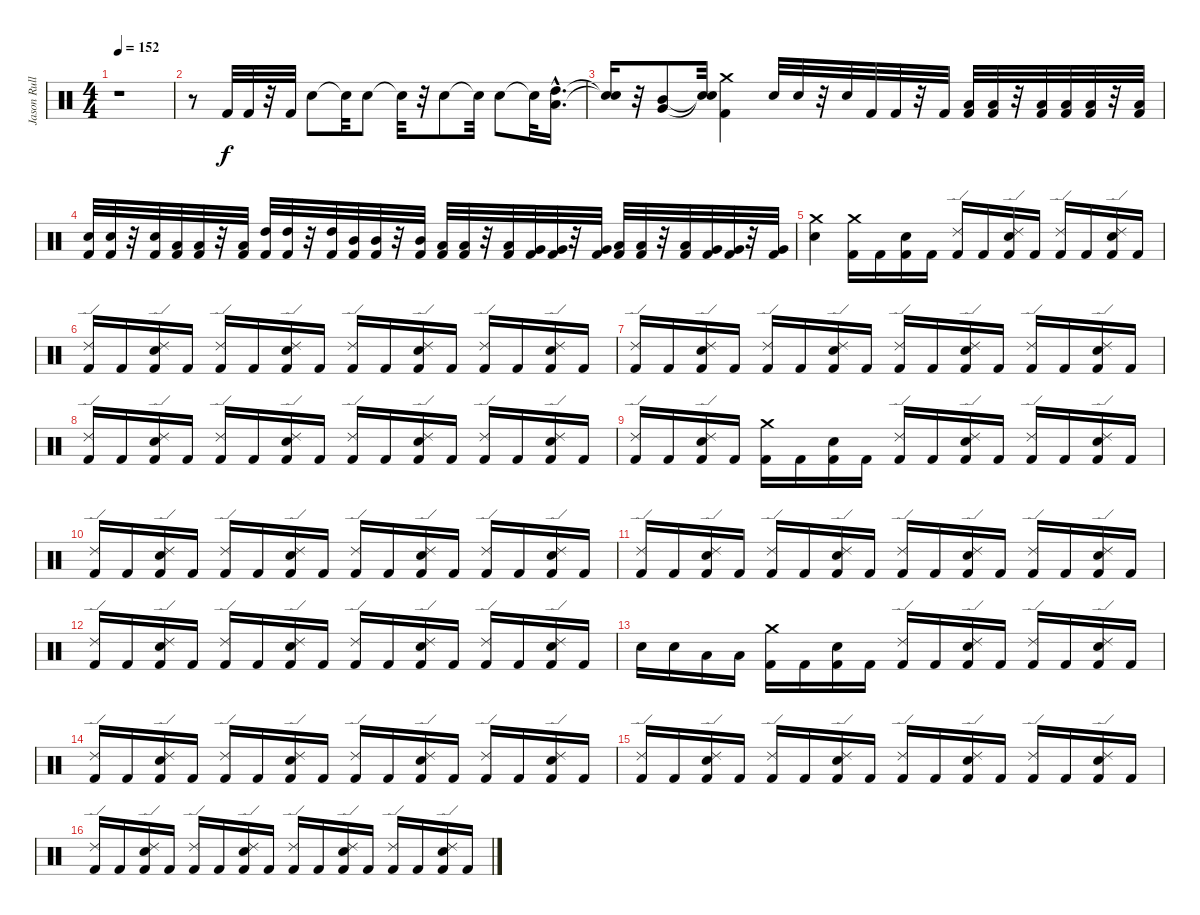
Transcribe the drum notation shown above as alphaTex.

\track ("Jason Rullo" "Jason Rull") {instrument percussion}
\staff {score}
\articulation defaults
\ts (4 4)
\tempo 152
\clef neutral
\ks c
r.1{dy f} |
r.8 "Kick (hit) 2".32 "Kick (hit) 2".32 r.32 "Kick (hit) 2".32 "Electric Snare (hit)".8 "Snare (hit)"{t}.32 "Electric Snare (hit)".8 "Snare (hit)"{t}.32 r.32 "Electric Snare (hit)".8 "Snare (hit)"{t}.32 "Electric Snare (hit)".8 "Snare (hit)"{t}.32 ("High Tom (hit)"{hac} "Low Tom (hit)"{hac}).16{d} |
("Snare (hit)"{t} "Snare (hit)"{t}).16 r.32 ("Mid Tom (hit)" "Very Low Tom (hit)").8 ("Snare (hit)"{t} "Snare (hit)"{t}).32 ("Crash medium (hit)" "Kick (hit) 2").4 "Electric Snare (hit)".32 "Electric Snare (hit)".32 r.32 "Electric Snare (hit)".32 "Kick (hit) 2".32 "Kick (hit) 2".32 r.32 "Kick (hit) 2".32 ("Kick (hit) 2" "Low Tom (hit)").32 ("Kick (hit) 2" "Low Tom (hit)").32 r.32 ("Kick (hit) 2" "Low Tom (hit)").32 ("Kick (hit) 2" "Low Floor Tom (hit)").32 ("Kick (hit) 2" "Low Floor Tom (hit)").32 r.32 ("Kick (hit) 2" "Low Floor Tom (hit)").32 |
("Kick (hit) 2" "Electric Snare (hit)").32 ("Kick (hit) 2" "Electric Snare (hit)").32 r.32 ("Kick (hit) 2" "Electric Snare (hit)").32 ("Low Tom (hit)" "Kick (hit) 2").32 ("Low Tom (hit)" "Kick (hit) 2").32 r.32 ("Low Tom (hit)" "Kick (hit) 2").32 ("High Tom (hit)" "Kick (hit) 2").32 ("High Tom (hit)" "Kick (hit) 2").32 r.32 ("High Tom (hit)" "Kick (hit) 2").32 ("Mid Tom (hit)" "Kick (hit) 2").32 ("Mid Tom (hit)" "Kick (hit) 2").32 r.32 ("Mid Tom (hit)" "Kick (hit) 2").32 ("Low Tom (hit)" "Kick (hit) 2").32 ("Low Tom (hit)" "Kick (hit) 2").32 r.32 ("Low Tom (hit)" "Kick (hit) 2").32 ("Very Low Tom (hit)" "Kick (hit) 2").32 ("Very Low Tom (hit)" "Kick (hit) 2").32 r.32 ("Very Low Tom (hit)" "Kick (hit) 2").32 ("Kick (hit) 2" "Low Tom (hit)").32 ("Kick (hit) 2" "Low Tom (hit)").32 r.32 ("Kick (hit) 2" "Low Tom (hit)").32 ("Kick (hit) 2" "Very Low Tom (hit)").32 ("Kick (hit) 2" "Very Low Tom (hit)").32 r.32 ("Kick (hit) 2" "Very Low Tom (hit)").32 |
("Crash medium (hit)" "Electric Snare (hit)").4 ("Crash medium (hit)" "Kick (hit) 2").16 "Kick (hit) 2".16 ("Electric Snare (hit)" "Kick (hit) 2").16 "Kick (hit) 2".16 ("Ride (edge) 2" "Kick (hit) 2").16 "Kick (hit) 2".16 ("Electric Snare (hit)" "Ride (edge) 2" "Kick (hit) 2").16 "Kick (hit) 2".16 ("Ride (edge) 2" "Kick (hit) 2").16 "Kick (hit) 2".16 ("Electric Snare (hit)" "Ride (edge) 2" "Kick (hit) 2").16 "Kick (hit) 2".16 |
("Ride (edge) 2" "Kick (hit) 2").16 "Kick (hit) 2".16 ("Electric Snare (hit)" "Ride (edge) 2" "Kick (hit) 2").16 "Kick (hit) 2".16 ("Ride (edge) 2" "Kick (hit) 2").16 "Kick (hit) 2".16 ("Electric Snare (hit)" "Ride (edge) 2" "Kick (hit) 2").16 "Kick (hit) 2".16 ("Ride (edge) 2" "Kick (hit) 2").16 "Kick (hit) 2".16 ("Electric Snare (hit)" "Ride (edge) 2" "Kick (hit) 2").16 "Kick (hit) 2".16 ("Ride (edge) 2" "Kick (hit) 2").16 "Kick (hit) 2".16 ("Electric Snare (hit)" "Ride (edge) 2" "Kick (hit) 2").16 "Kick (hit) 2".16 |
("Ride (edge) 2" "Kick (hit) 2").16 "Kick (hit) 2".16 ("Electric Snare (hit)" "Ride (edge) 2" "Kick (hit) 2").16 "Kick (hit) 2".16 ("Ride (edge) 2" "Kick (hit) 2").16 "Kick (hit) 2".16 ("Electric Snare (hit)" "Ride (edge) 2" "Kick (hit) 2").16 "Kick (hit) 2".16 ("Ride (edge) 2" "Kick (hit) 2").16 "Kick (hit) 2".16 ("Electric Snare (hit)" "Ride (edge) 2" "Kick (hit) 2").16 "Kick (hit) 2".16 ("Ride (edge) 2" "Kick (hit) 2").16 "Kick (hit) 2".16 ("Electric Snare (hit)" "Ride (edge) 2" "Kick (hit) 2").16 "Kick (hit) 2".16 |
("Ride (edge) 2" "Kick (hit) 2").16 "Kick (hit) 2".16 ("Electric Snare (hit)" "Ride (edge) 2" "Kick (hit) 2").16 "Kick (hit) 2".16 ("Ride (edge) 2" "Kick (hit) 2").16 "Kick (hit) 2".16 ("Electric Snare (hit)" "Ride (edge) 2" "Kick (hit) 2").16 "Kick (hit) 2".16 ("Ride (edge) 2" "Kick (hit) 2").16 "Kick (hit) 2".16 ("Electric Snare (hit)" "Ride (edge) 2" "Kick (hit) 2").16 "Kick (hit) 2".16 ("Ride (edge) 2" "Kick (hit) 2").16 "Kick (hit) 2".16 ("Electric Snare (hit)" "Ride (edge) 2" "Kick (hit) 2").16 "Kick (hit) 2".16 |
("Ride (edge) 2" "Kick (hit) 2").16 "Kick (hit) 2".16 ("Electric Snare (hit)" "Ride (edge) 2" "Kick (hit) 2").16 "Kick (hit) 2".16 ("Crash medium (hit)" "Kick (hit) 2").16 "Kick (hit) 2".16 ("Electric Snare (hit)" "Kick (hit) 2").16 "Kick (hit) 2".16 ("Ride (edge) 2" "Kick (hit) 2").16 "Kick (hit) 2".16 ("Electric Snare (hit)" "Ride (edge) 2" "Kick (hit) 2").16 "Kick (hit) 2".16 ("Ride (edge) 2" "Kick (hit) 2").16 "Kick (hit) 2".16 ("Electric Snare (hit)" "Ride (edge) 2" "Kick (hit) 2").16 "Kick (hit) 2".16 |
("Ride (edge) 2" "Kick (hit) 2").16 "Kick (hit) 2".16 ("Electric Snare (hit)" "Ride (edge) 2" "Kick (hit) 2").16 "Kick (hit) 2".16 ("Ride (edge) 2" "Kick (hit) 2").16 "Kick (hit) 2".16 ("Electric Snare (hit)" "Ride (edge) 2" "Kick (hit) 2").16 "Kick (hit) 2".16 ("Ride (edge) 2" "Kick (hit) 2").16 "Kick (hit) 2".16 ("Electric Snare (hit)" "Ride (edge) 2" "Kick (hit) 2").16 "Kick (hit) 2".16 ("Ride (edge) 2" "Kick (hit) 2").16 "Kick (hit) 2".16 ("Electric Snare (hit)" "Ride (edge) 2" "Kick (hit) 2").16 "Kick (hit) 2".16 |
("Ride (edge) 2" "Kick (hit) 2").16 "Kick (hit) 2".16 ("Electric Snare (hit)" "Ride (edge) 2" "Kick (hit) 2").16 "Kick (hit) 2".16 ("Ride (edge) 2" "Kick (hit) 2").16 "Kick (hit) 2".16 ("Electric Snare (hit)" "Ride (edge) 2" "Kick (hit) 2").16 "Kick (hit) 2".16 ("Ride (edge) 2" "Kick (hit) 2").16 "Kick (hit) 2".16 ("Electric Snare (hit)" "Ride (edge) 2" "Kick (hit) 2").16 "Kick (hit) 2".16 ("Ride (edge) 2" "Kick (hit) 2").16 "Kick (hit) 2".16 ("Electric Snare (hit)" "Ride (edge) 2" "Kick (hit) 2").16 "Kick (hit) 2".16 |
("Ride (edge) 2" "Kick (hit) 2").16 "Kick (hit) 2".16 ("Electric Snare (hit)" "Ride (edge) 2" "Kick (hit) 2").16 "Kick (hit) 2".16 ("Ride (edge) 2" "Kick (hit) 2").16 "Kick (hit) 2".16 ("Electric Snare (hit)" "Ride (edge) 2" "Kick (hit) 2").16 "Kick (hit) 2".16 ("Ride (edge) 2" "Kick (hit) 2").16 "Kick (hit) 2".16 ("Electric Snare (hit)" "Ride (edge) 2" "Kick (hit) 2").16 "Kick (hit) 2".16 ("Ride (edge) 2" "Kick (hit) 2").16 "Kick (hit) 2".16 ("Electric Snare (hit)" "Ride (edge) 2" "Kick (hit) 2").16 "Kick (hit) 2".16 |
"Electric Snare (hit)".16 "Electric Snare (hit)".16 "Low Tom (hit)".16 "Low Tom (hit)".16 ("Crash medium (hit)" "Kick (hit) 2").16 "Kick (hit) 2".16 ("Electric Snare (hit)" "Kick (hit) 2").16 "Kick (hit) 2".16 ("Ride (edge) 2" "Kick (hit) 2").16 "Kick (hit) 2".16 ("Electric Snare (hit)" "Ride (edge) 2" "Kick (hit) 2").16 "Kick (hit) 2".16 ("Ride (edge) 2" "Kick (hit) 2").16 "Kick (hit) 2".16 ("Electric Snare (hit)" "Ride (edge) 2" "Kick (hit) 2").16 "Kick (hit) 2".16 |
("Ride (edge) 2" "Kick (hit) 2").16 "Kick (hit) 2".16 ("Electric Snare (hit)" "Ride (edge) 2" "Kick (hit) 2").16 "Kick (hit) 2".16 ("Ride (edge) 2" "Kick (hit) 2").16 "Kick (hit) 2".16 ("Electric Snare (hit)" "Ride (edge) 2" "Kick (hit) 2").16 "Kick (hit) 2".16 ("Ride (edge) 2" "Kick (hit) 2").16 "Kick (hit) 2".16 ("Electric Snare (hit)" "Ride (edge) 2" "Kick (hit) 2").16 "Kick (hit) 2".16 ("Ride (edge) 2" "Kick (hit) 2").16 "Kick (hit) 2".16 ("Electric Snare (hit)" "Ride (edge) 2" "Kick (hit) 2").16 "Kick (hit) 2".16 |
("Ride (edge) 2" "Kick (hit) 2").16 "Kick (hit) 2".16 ("Electric Snare (hit)" "Ride (edge) 2" "Kick (hit) 2").16 "Kick (hit) 2".16 ("Ride (edge) 2" "Kick (hit) 2").16 "Kick (hit) 2".16 ("Electric Snare (hit)" "Ride (edge) 2" "Kick (hit) 2").16 "Kick (hit) 2".16 ("Ride (edge) 2" "Kick (hit) 2").16 "Kick (hit) 2".16 ("Electric Snare (hit)" "Ride (edge) 2" "Kick (hit) 2").16 "Kick (hit) 2".16 ("Ride (edge) 2" "Kick (hit) 2").16 "Kick (hit) 2".16 ("Electric Snare (hit)" "Ride (edge) 2" "Kick (hit) 2").16 "Kick (hit) 2".16 |
("Ride (edge) 2" "Kick (hit) 2").16 "Kick (hit) 2".16 ("Electric Snare (hit)" "Ride (edge) 2" "Kick (hit) 2").16 "Kick (hit) 2".16 ("Ride (edge) 2" "Kick (hit) 2").16 "Kick (hit) 2".16 ("Electric Snare (hit)" "Ride (edge) 2" "Kick (hit) 2").16 "Kick (hit) 2".16 ("Ride (edge) 2" "Kick (hit) 2").16 "Kick (hit) 2".16 ("Electric Snare (hit)" "Ride (edge) 2" "Kick (hit) 2").16 "Kick (hit) 2".16 ("Ride (edge) 2" "Kick (hit) 2").16 "Kick (hit) 2".16 ("Electric Snare (hit)" "Ride (edge) 2" "Kick (hit) 2").16 "Kick (hit) 2".16
